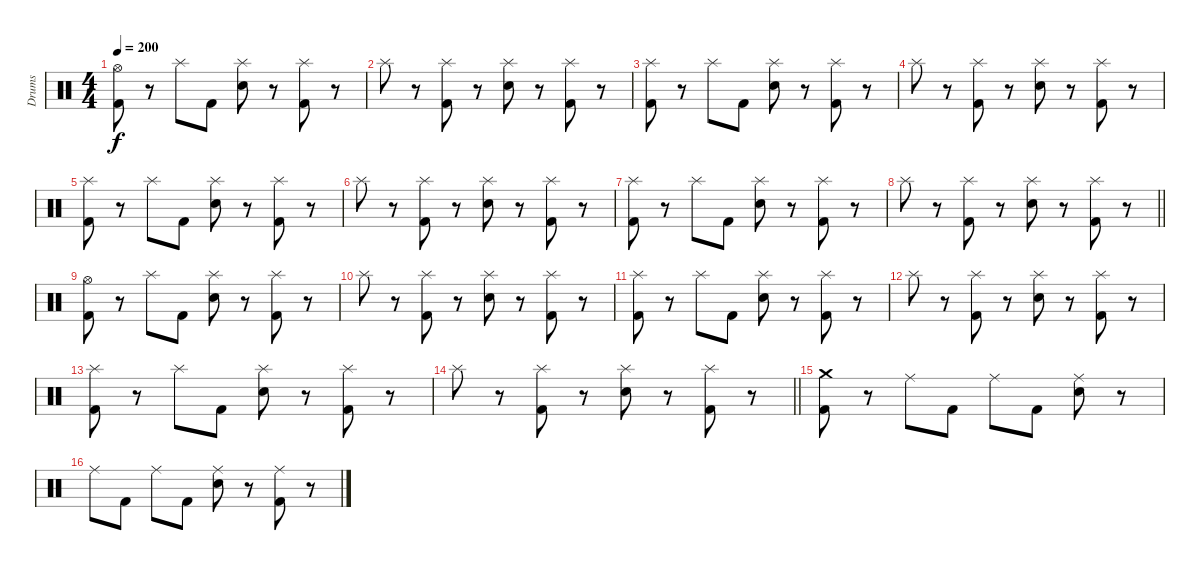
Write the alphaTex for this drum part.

\track ("Drums" "Drums") {instrument percussion}
\staff {score}
\articulation defaults
\ts (4 4)
\tempo 200
\clef neutral
\ks c
("Hi-Hat (open)" "Kick (hit) 2").8{dy f} r.8 "Splash (hit)".8 "Kick (hit) 2".8 ("Splash (hit)" "Electric Snare (hit)").8 r.8 ("Splash (hit)" "Kick (hit) 2").8 r.8 |
"Splash (hit)".8 r.8 ("Splash (hit)" "Kick (hit) 2").8 r.8 ("Splash (hit)" "Electric Snare (hit)").8 r.8 ("Splash (hit)" "Kick (hit) 2").8 r.8 |
("Splash (hit)" "Kick (hit) 2").8 r.8 "Splash (hit)".8 "Kick (hit) 2".8 ("Splash (hit)" "Electric Snare (hit)").8 r.8 ("Splash (hit)" "Kick (hit) 2").8 r.8 |
"Splash (hit)".8 r.8 ("Splash (hit)" "Kick (hit) 2").8 r.8 ("Splash (hit)" "Electric Snare (hit)").8 r.8 ("Splash (hit)" "Kick (hit) 2").8 r.8 |
("Splash (hit)" "Kick (hit) 2").8 r.8 "Splash (hit)".8 "Kick (hit) 2".8 ("Splash (hit)" "Electric Snare (hit)").8 r.8 ("Splash (hit)" "Kick (hit) 2").8 r.8 |
"Splash (hit)".8 r.8 ("Splash (hit)" "Kick (hit) 2").8 r.8 ("Splash (hit)" "Electric Snare (hit)").8 r.8 ("Splash (hit)" "Kick (hit) 2").8 r.8 |
("Splash (hit)" "Kick (hit) 2").8 r.8 "Splash (hit)".8 "Kick (hit) 2".8 ("Splash (hit)" "Electric Snare (hit)").8 r.8 ("Splash (hit)" "Kick (hit) 2").8 r.8 |
\barLineRight lightlight "Splash (hit)".8
r.8 ("Splash (hit)" "Kick (hit) 2").8 r.8 ("Splash (hit)" "Electric Snare (hit)").8 r.8 ("Splash (hit)" "Kick (hit) 2").8 r.8 |
("Hi-Hat (open)" "Kick (hit) 2").8 r.8 "Splash (hit)".8 "Kick (hit) 2".8 ("Splash (hit)" "Electric Snare (hit)").8 r.8 ("Splash (hit)" "Kick (hit) 2").8 r.8 |
"Splash (hit)".8 r.8 ("Splash (hit)" "Kick (hit) 2").8 r.8 ("Splash (hit)" "Electric Snare (hit)").8 r.8 ("Splash (hit)" "Kick (hit) 2").8 r.8 |
("Splash (hit)" "Kick (hit) 2").8 r.8 "Splash (hit)".8 "Kick (hit) 2".8 ("Splash (hit)" "Electric Snare (hit)").8 r.8 ("Splash (hit)" "Kick (hit) 2").8 r.8 |
"Splash (hit)".8 r.8 ("Splash (hit)" "Kick (hit) 2").8 r.8 ("Splash (hit)" "Electric Snare (hit)").8 r.8 ("Splash (hit)" "Kick (hit) 2").8 r.8 |
("Splash (hit)" "Kick (hit) 2").8 r.8 "Splash (hit)".8 "Kick (hit) 2".8 ("Splash (hit)" "Electric Snare (hit)").8 r.8 ("Splash (hit)" "Kick (hit) 2").8 r.8 |
\barLineRight lightlight "Splash (hit)".8
r.8 ("Splash (hit)" "Kick (hit) 2").8 r.8 ("Splash (hit)" "Electric Snare (hit)").8 r.8 ("Splash (hit)" "Kick (hit) 2").8 r.8 |
("Crash medium (hit)" "Kick (hit) 2").8 r.8 "Ride (middle)".8 "Kick (hit) 2".8 "Ride (middle)".8 "Kick (hit) 2".8 ("Ride (middle)" "Electric Snare (hit)").8 r.8 |
"Ride (middle)".8 "Kick (hit) 2".8 "Ride (middle)".8 "Kick (hit) 2".8 ("Ride (middle)" "Electric Snare (hit)").8 r.8 ("Ride (middle)" "Kick (hit) 2").8 r.8
